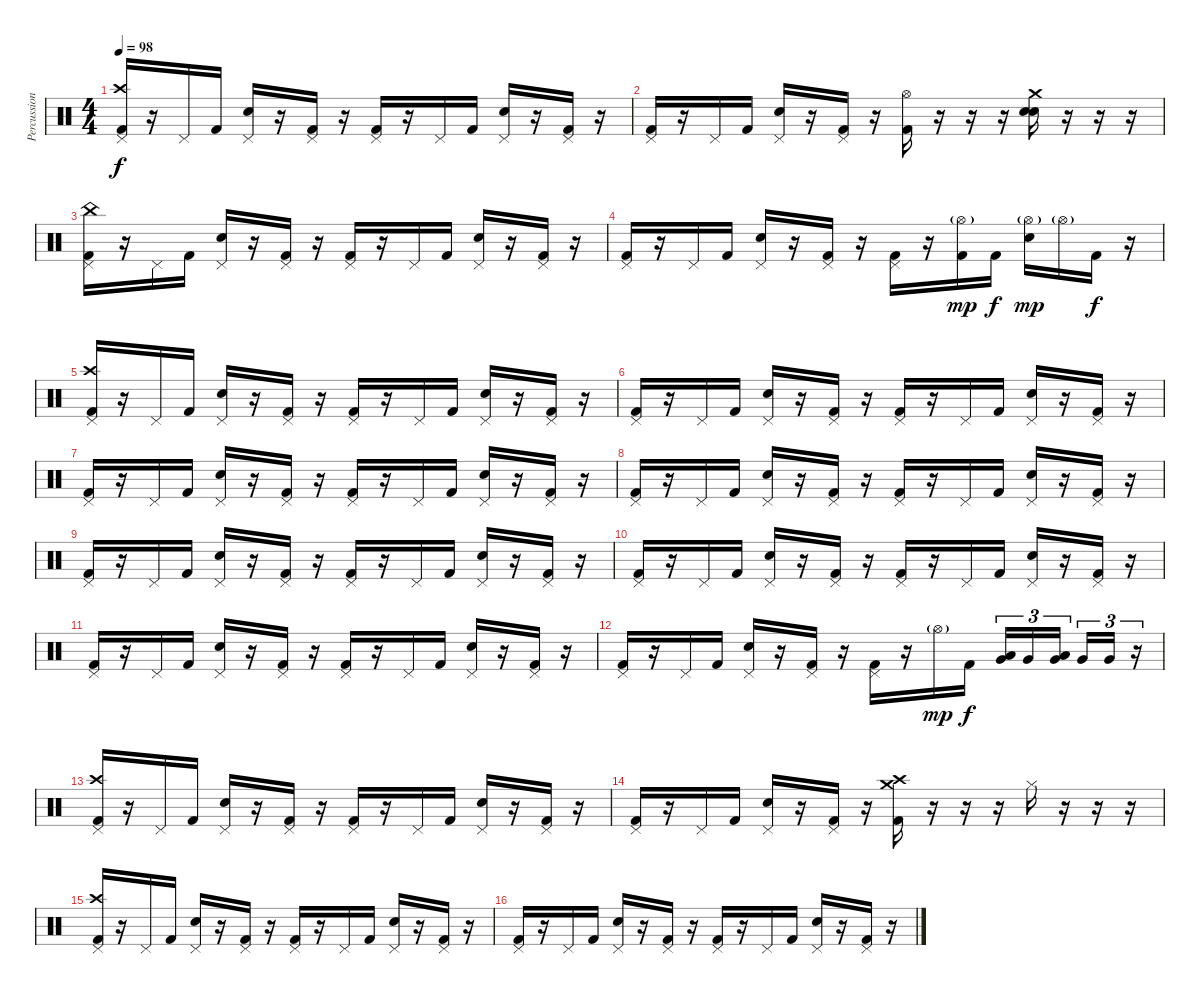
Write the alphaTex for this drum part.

\track ("Percussions" "Percussion") {instrument percussion}
\staff {score}
\articulation defaults
\ts (4 4)
\tempo 98
\clef neutral
\ks c
("Pedal Hi-Hat (hit)" "Crash high (hit)" "Kick (hit) 2").16{dy f} r.16 "Pedal Hi-Hat (hit)".16 "Kick (hit) 2".16 ("Pedal Hi-Hat (hit)" "Snare (hit) 2").16 r.16 ("Pedal Hi-Hat (hit)" "Kick (hit) 2").16 r.16 ("Pedal Hi-Hat (hit)" "Kick (hit) 2").16 r.16 "Pedal Hi-Hat (hit)".16 "Kick (hit) 2".16 ("Pedal Hi-Hat (hit)" "Snare (hit) 2").16 r.16 ("Pedal Hi-Hat (hit)" "Kick (hit) 2").16 r.16 |
("Pedal Hi-Hat (hit)" "Kick (hit) 2").16 r.16 "Pedal Hi-Hat (hit)".16 "Kick (hit) 2".16 ("Pedal Hi-Hat (hit)" "Snare (hit) 2").16 r.16 ("Pedal Hi-Hat (hit)" "Kick (hit) 2").16 r.16 ("Hi-Hat (open)" "Kick (hit) 2").16 r.16 r.16 r.16 ("Snare (hit) 2" "Crash medium (hit)" "Snare (hit) 2").16 r.16 r.16 r.16 |
("Pedal Hi-Hat (hit)" "China (hit)" "Kick (hit) 2").16 r.16 "Pedal Hi-Hat (hit)".16 "Kick (hit) 2".16 ("Pedal Hi-Hat (hit)" "Snare (hit) 2").16 r.16 ("Pedal Hi-Hat (hit)" "Kick (hit) 2").16 r.16 ("Pedal Hi-Hat (hit)" "Kick (hit) 2").16 r.16 "Pedal Hi-Hat (hit)".16 "Kick (hit) 2".16 ("Pedal Hi-Hat (hit)" "Snare (hit) 2").16 r.16 ("Pedal Hi-Hat (hit)" "Kick (hit) 2").16 r.16 |
("Pedal Hi-Hat (hit)" "Kick (hit) 2").16 r.16 "Pedal Hi-Hat (hit)".16 "Kick (hit) 2".16 ("Pedal Hi-Hat (hit)" "Snare (hit) 2").16 r.16 ("Pedal Hi-Hat (hit)" "Kick (hit) 2").16 r.16 ("Pedal Hi-Hat (hit)" "Kick (hit) 2").16 r.16 ("Hi-Hat (open)"{g} "Kick (hit) 2").16{dy mp} "Kick (hit) 2".16{dy f} ("Hi-Hat (open)"{g} "Snare (hit) 2").16{dy mp} "Hi-Hat (open)"{g}.16 "Kick (hit) 2".16{dy f} r.16 |
("Pedal Hi-Hat (hit)" "Crash high (hit)" "Kick (hit) 2").16 r.16 "Pedal Hi-Hat (hit)".16 "Kick (hit) 2".16 ("Pedal Hi-Hat (hit)" "Snare (hit) 2").16 r.16 ("Pedal Hi-Hat (hit)" "Kick (hit) 2").16 r.16 ("Pedal Hi-Hat (hit)" "Kick (hit) 2").16 r.16 "Pedal Hi-Hat (hit)".16 "Kick (hit) 2".16 ("Pedal Hi-Hat (hit)" "Snare (hit) 2").16 r.16 ("Pedal Hi-Hat (hit)" "Kick (hit) 2").16 r.16 |
("Pedal Hi-Hat (hit)" "Kick (hit) 2").16 r.16 "Pedal Hi-Hat (hit)".16 "Kick (hit) 2".16 ("Pedal Hi-Hat (hit)" "Snare (hit) 2").16 r.16 ("Pedal Hi-Hat (hit)" "Kick (hit) 2").16 r.16 ("Pedal Hi-Hat (hit)" "Kick (hit) 2").16 r.16 "Pedal Hi-Hat (hit)".16 "Kick (hit) 2".16 ("Pedal Hi-Hat (hit)" "Snare (hit) 2").16 r.16 ("Pedal Hi-Hat (hit)" "Kick (hit) 2").16 r.16 |
("Pedal Hi-Hat (hit)" "Kick (hit) 2").16 r.16 "Pedal Hi-Hat (hit)".16 "Kick (hit) 2".16 ("Pedal Hi-Hat (hit)" "Snare (hit) 2").16 r.16 ("Pedal Hi-Hat (hit)" "Kick (hit) 2").16 r.16 ("Pedal Hi-Hat (hit)" "Kick (hit) 2").16 r.16 "Pedal Hi-Hat (hit)".16 "Kick (hit) 2".16 ("Pedal Hi-Hat (hit)" "Snare (hit) 2").16 r.16 ("Pedal Hi-Hat (hit)" "Kick (hit) 2").16 r.16 |
("Pedal Hi-Hat (hit)" "Kick (hit) 2").16 r.16 "Pedal Hi-Hat (hit)".16 "Kick (hit) 2".16 ("Pedal Hi-Hat (hit)" "Snare (hit) 2").16 r.16 ("Pedal Hi-Hat (hit)" "Kick (hit) 2").16 r.16 ("Pedal Hi-Hat (hit)" "Kick (hit) 2").16 r.16 "Pedal Hi-Hat (hit)".16 "Kick (hit) 2".16 ("Pedal Hi-Hat (hit)" "Snare (hit) 2").16 r.16 ("Pedal Hi-Hat (hit)" "Kick (hit) 2").16 r.16 |
("Pedal Hi-Hat (hit)" "Kick (hit) 2").16 r.16 "Pedal Hi-Hat (hit)".16 "Kick (hit) 2".16 ("Pedal Hi-Hat (hit)" "Snare (hit) 2").16 r.16 ("Pedal Hi-Hat (hit)" "Kick (hit) 2").16 r.16 ("Pedal Hi-Hat (hit)" "Kick (hit) 2").16 r.16 "Pedal Hi-Hat (hit)".16 "Kick (hit) 2".16 ("Pedal Hi-Hat (hit)" "Snare (hit) 2").16 r.16 ("Pedal Hi-Hat (hit)" "Kick (hit) 2").16 r.16 |
("Pedal Hi-Hat (hit)" "Kick (hit) 2").16 r.16 "Pedal Hi-Hat (hit)".16 "Kick (hit) 2".16 ("Pedal Hi-Hat (hit)" "Snare (hit) 2").16 r.16 ("Pedal Hi-Hat (hit)" "Kick (hit) 2").16 r.16 ("Pedal Hi-Hat (hit)" "Kick (hit) 2").16 r.16 "Pedal Hi-Hat (hit)".16 "Kick (hit) 2".16 ("Pedal Hi-Hat (hit)" "Snare (hit) 2").16 r.16 ("Pedal Hi-Hat (hit)" "Kick (hit) 2").16 r.16 |
("Pedal Hi-Hat (hit)" "Kick (hit) 2").16 r.16 "Pedal Hi-Hat (hit)".16 "Kick (hit) 2".16 ("Pedal Hi-Hat (hit)" "Snare (hit) 2").16 r.16 ("Pedal Hi-Hat (hit)" "Kick (hit) 2").16 r.16 ("Pedal Hi-Hat (hit)" "Kick (hit) 2").16 r.16 "Pedal Hi-Hat (hit)".16 "Kick (hit) 2".16 ("Pedal Hi-Hat (hit)" "Snare (hit) 2").16 r.16 ("Pedal Hi-Hat (hit)" "Kick (hit) 2").16 r.16 |
("Pedal Hi-Hat (hit)" "Kick (hit) 2").16 r.16 "Pedal Hi-Hat (hit)".16 "Kick (hit) 2".16 ("Pedal Hi-Hat (hit)" "Snare (hit) 2").16 r.16 ("Pedal Hi-Hat (hit)" "Kick (hit) 2").16 r.16 ("Pedal Hi-Hat (hit)" "Kick (hit) 2").16 r.16 "Hi-Hat (open)"{g}.16{dy mp} "Kick (hit) 2".16{dy f} ("Very Low Tom (hit)" "Low Floor Tom (hit)").16{tu (3 2)} "Very Low Tom (hit)".16{tu (3 2)} ("Very Low Tom (hit)" "Low Floor Tom (hit)").16{tu (3 2)} "Very Low Tom (hit)".16{tu (3 2)} "Very Low Tom (hit)".16{tu (3 2)} r.16{tu (3 2)} |
("Pedal Hi-Hat (hit)" "Crash high (hit)" "Kick (hit) 2").16 r.16 "Pedal Hi-Hat (hit)".16 "Kick (hit) 2".16 ("Pedal Hi-Hat (hit)" "Snare (hit) 2").16 r.16 ("Pedal Hi-Hat (hit)" "Kick (hit) 2").16 r.16 ("Pedal Hi-Hat (hit)" "Kick (hit) 2").16 r.16 "Pedal Hi-Hat (hit)".16 "Kick (hit) 2".16 ("Pedal Hi-Hat (hit)" "Snare (hit) 2").16 r.16 ("Pedal Hi-Hat (hit)" "Kick (hit) 2").16 r.16 |
("Pedal Hi-Hat (hit)" "Kick (hit) 2").16 r.16 "Pedal Hi-Hat (hit)".16 "Kick (hit) 2".16 ("Pedal Hi-Hat (hit)" "Snare (hit) 2").16 r.16 ("Pedal Hi-Hat (hit)" "Kick (hit) 2").16 r.16 ("Crash high (hit)" "Crash medium (hit)" "Kick (hit) 2").16 r.16 r.16 r.16 "Hi-Hat (closed)".16 r.16 r.16 r.16 |
("Pedal Hi-Hat (hit)" "Crash high (hit)" "Kick (hit) 2").16 r.16 "Pedal Hi-Hat (hit)".16 "Kick (hit) 2".16 ("Pedal Hi-Hat (hit)" "Snare (hit) 2").16 r.16 ("Pedal Hi-Hat (hit)" "Kick (hit) 2").16 r.16 ("Pedal Hi-Hat (hit)" "Kick (hit) 2").16 r.16 "Pedal Hi-Hat (hit)".16 "Kick (hit) 2".16 ("Pedal Hi-Hat (hit)" "Snare (hit) 2").16 r.16 ("Pedal Hi-Hat (hit)" "Kick (hit) 2").16 r.16 |
("Pedal Hi-Hat (hit)" "Kick (hit) 2").16 r.16 "Pedal Hi-Hat (hit)".16 "Kick (hit) 2".16 ("Pedal Hi-Hat (hit)" "Snare (hit) 2").16 r.16 ("Pedal Hi-Hat (hit)" "Kick (hit) 2").16 r.16 ("Pedal Hi-Hat (hit)" "Kick (hit) 2").16 r.16 "Pedal Hi-Hat (hit)".16 "Kick (hit) 2".16 ("Pedal Hi-Hat (hit)" "Snare (hit) 2").16 r.16 ("Pedal Hi-Hat (hit)" "Kick (hit) 2").16 r.16
